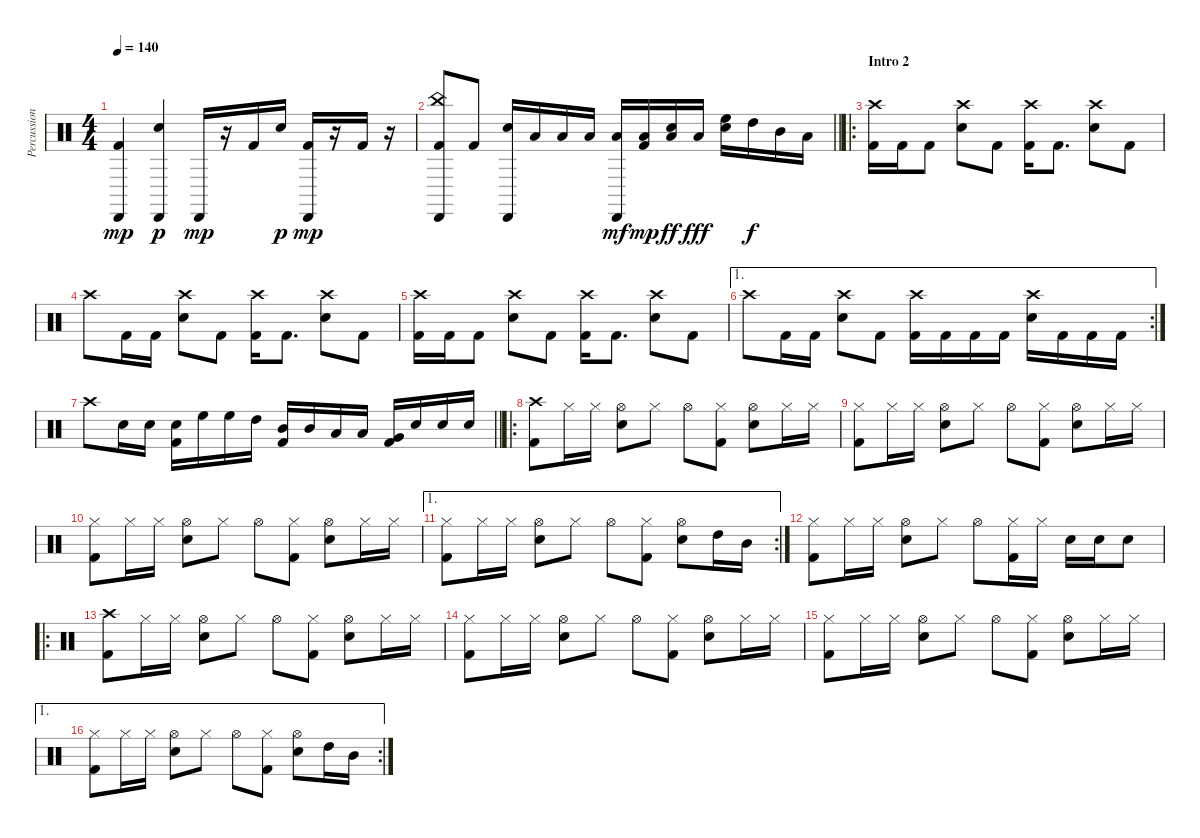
\track ("Percussions" "Percussion") {instrument percussion}
\staff {score}
\articulation defaults
\ts (4 4)
\tempo 140
\clef neutral
\ks c
("Cabasa (hit)" "Kick (hit) 2").4{dy mp} ("Cabasa (hit)" "Snare (hit) 2").4{dy p} "Cabasa (hit)".16{dy mp} r.16 "Kick (hit) 2".16 "Snare (hit) 2".16{dy p} ("Cabasa (hit)" "Kick (hit) 2").16{dy mp} r.16 "Kick (hit) 2".16 r.16 |
\barLineRight lightlight
("Cabasa (hit)" "China (hit)" "Kick (hit) 2").8 "Kick (hit) 2".8 ("Cabasa (hit)" "Snare (hit) 2").16 "Low Floor Tom (hit)".16 "Low Floor Tom (hit)".16 "Low Floor Tom (hit)".16 ("Cabasa (hit)" "Low Floor Tom (hit)").16{dy mf} ("Low Floor Tom (hit)" "Kick (hit) 2").16{dy mp} ("Snare (hit) 2" "Low Floor Tom (hit)").16{dy ff} "Low Floor Tom (hit)".16{dy fff} ("Snare (hit) 2" "High Floor Tom (hit)").16 "High Tom (hit)".16{dy f} "Mid Tom (hit)".16 "Low Tom (hit)".16 |
\ro
\section ("" "Intro 2")
("Crash high (hit)" "Kick (hit) 2").16 "Kick (hit) 2".16 "Kick (hit) 2".8 ("Crash high (hit)" "Snare (hit) 2").8 "Kick (hit) 2".8 ("Crash high (hit)" "Kick (hit) 2").16 "Kick (hit) 2".8{d} ("Crash high (hit)" "Snare (hit) 2").8 "Kick (hit) 2".8 |
"Crash high (hit)".8 "Kick (hit) 2".16 "Kick (hit) 2".16 ("Crash high (hit)" "Snare (hit) 2").8 "Kick (hit) 2".8 ("Crash high (hit)" "Kick (hit) 2").16 "Kick (hit) 2".8{d} ("Crash high (hit)" "Snare (hit) 2").8 "Kick (hit) 2".8 |
("Crash high (hit)" "Kick (hit) 2").16 "Kick (hit) 2".16 "Kick (hit) 2".8 ("Crash high (hit)" "Snare (hit) 2").8 "Kick (hit) 2".8 ("Crash high (hit)" "Kick (hit) 2").16 "Kick (hit) 2".8{d} ("Crash high (hit)" "Snare (hit) 2").8 "Kick (hit) 2".8 |
\ae 1
\rc 2 "Crash high (hit)".8 "Kick (hit) 2".16 "Kick (hit) 2".16
("Crash high (hit)" "Snare (hit) 2").8 "Kick (hit) 2".8 ("Crash high (hit)" "Kick (hit) 2").16 "Kick (hit) 2".16 "Kick (hit) 2".16 "Kick (hit) 2".16 ("Crash high (hit)" "Snare (hit) 2").16 "Kick (hit) 2".16 "Kick (hit) 2".16 "Kick (hit) 2".16 |
\barLineRight lightlight "Crash high (hit)".8 "Snare (hit) 2".16 "Snare (hit) 2".16
("Snare (hit) 2" "Kick (hit) 2").16 "High Floor Tom (hit)".16 "High Floor Tom (hit)".16 "High Tom (hit)".16 ("Mid Tom (hit)" "Kick (hit) 2").16 "Mid Tom (hit)".16 "Low Tom (hit)".16 "Low Tom (hit)".16 ("Very Low Tom (hit)" "Kick (hit) 2").16 "Snare (hit) 2".16 "Snare (hit) 2".16 "Snare (hit) 2".16 |
\ro
\section ("" "")
("Crash high (hit)" "Kick (hit) 2").8 "Hi-Hat (closed)".16 "Hi-Hat (closed)".16 ("Hi-Hat (open)" "Snare (hit) 2").8 "Hi-Hat (closed)".8 "Hi-Hat (open)".8 ("Hi-Hat (closed)" "Kick (hit) 2").8 ("Hi-Hat (open)" "Snare (hit) 2").8 "Hi-Hat (closed)".16 "Hi-Hat (closed)".16 |
("Hi-Hat (closed)" "Kick (hit) 2").8 "Hi-Hat (closed)".16 "Hi-Hat (closed)".16 ("Hi-Hat (open)" "Snare (hit) 2").8 "Hi-Hat (closed)".8 "Hi-Hat (open)".8 ("Hi-Hat (closed)" "Kick (hit) 2").8 ("Hi-Hat (open)" "Snare (hit) 2").8 "Hi-Hat (closed)".16 "Hi-Hat (closed)".16 |
("Hi-Hat (closed)" "Kick (hit) 2").8 "Hi-Hat (closed)".16 "Hi-Hat (closed)".16 ("Hi-Hat (open)" "Snare (hit) 2").8 "Hi-Hat (closed)".8 "Hi-Hat (open)".8 ("Hi-Hat (closed)" "Kick (hit) 2").8 ("Hi-Hat (open)" "Snare (hit) 2").8 "Hi-Hat (closed)".16 "Hi-Hat (closed)".16 |
\ae 1
\rc 2
("Hi-Hat (closed)" "Kick (hit) 2").8 "Hi-Hat (closed)".16 "Hi-Hat (closed)".16 ("Hi-Hat (open)" "Snare (hit) 2").8 "Hi-Hat (closed)".8 "Hi-Hat (open)".8 ("Hi-Hat (closed)" "Kick (hit) 2").8 ("Hi-Hat (open)" "Snare (hit) 2").8 "High Tom (hit)".16 "Mid Tom (hit)".16 |
("Hi-Hat (closed)" "Kick (hit) 2").8 "Hi-Hat (closed)".16 "Hi-Hat (closed)".16 ("Hi-Hat (open)" "Snare (hit) 2").8 "Hi-Hat (closed)".8 "Hi-Hat (open)".8 ("Hi-Hat (closed)" "Kick (hit) 2").16 "Hi-Hat (closed)".16 "Snare (hit) 2".16 "Snare (hit) 2".16 "Snare (hit) 2".8 |
\ro
("Crash high (hit)" "Kick (hit) 2").8 "Hi-Hat (closed)".16 "Hi-Hat (closed)".16 ("Hi-Hat (open)" "Snare (hit) 2").8 "Hi-Hat (closed)".8 "Hi-Hat (open)".8 ("Hi-Hat (closed)" "Kick (hit) 2").8 ("Hi-Hat (open)" "Snare (hit) 2").8 "Hi-Hat (closed)".16 "Hi-Hat (closed)".16 |
("Hi-Hat (closed)" "Kick (hit) 2").8 "Hi-Hat (closed)".16 "Hi-Hat (closed)".16 ("Hi-Hat (open)" "Snare (hit) 2").8 "Hi-Hat (closed)".8 "Hi-Hat (open)".8 ("Hi-Hat (closed)" "Kick (hit) 2").8 ("Hi-Hat (open)" "Snare (hit) 2").8 "Hi-Hat (closed)".16 "Hi-Hat (closed)".16 |
("Hi-Hat (closed)" "Kick (hit) 2").8 "Hi-Hat (closed)".16 "Hi-Hat (closed)".16 ("Hi-Hat (open)" "Snare (hit) 2").8 "Hi-Hat (closed)".8 "Hi-Hat (open)".8 ("Hi-Hat (closed)" "Kick (hit) 2").8 ("Hi-Hat (open)" "Snare (hit) 2").8 "Hi-Hat (closed)".16 "Hi-Hat (closed)".16 |
\ae 1
\rc 2
("Hi-Hat (closed)" "Kick (hit) 2").8 "Hi-Hat (closed)".16 "Hi-Hat (closed)".16 ("Hi-Hat (open)" "Snare (hit) 2").8 "Hi-Hat (closed)".8 "Hi-Hat (open)".8 ("Hi-Hat (closed)" "Kick (hit) 2").8 ("Hi-Hat (open)" "Snare (hit) 2").8 "High Tom (hit)".16 "Mid Tom (hit)".16
